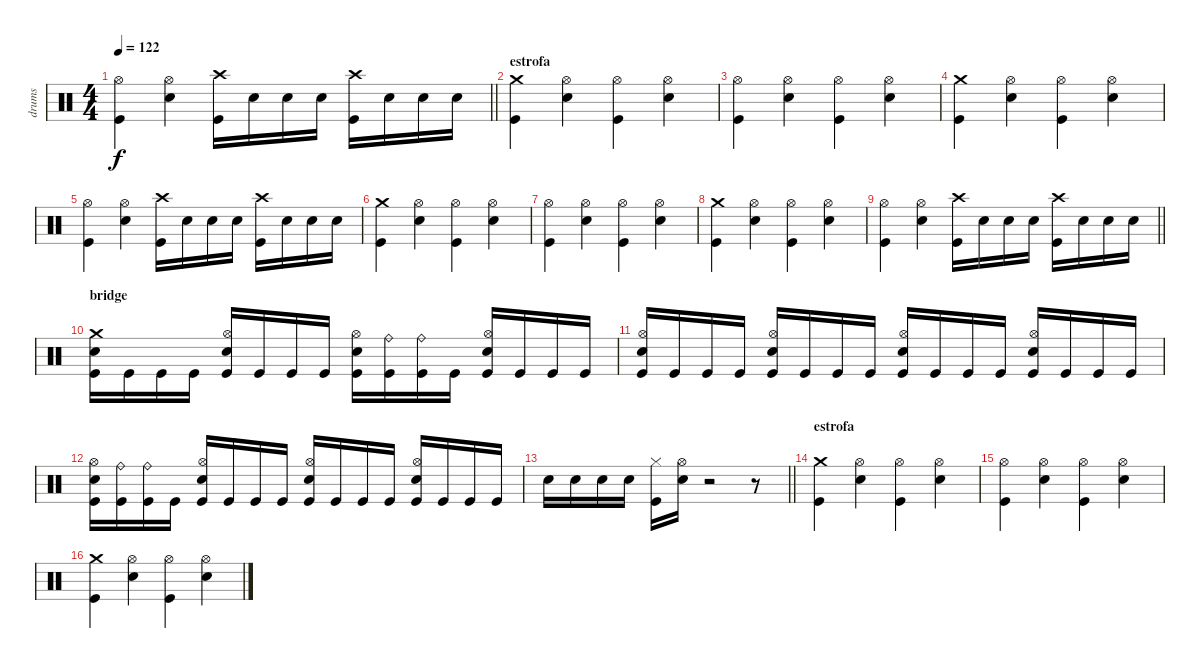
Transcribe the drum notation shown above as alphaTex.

\track ("drums" "drums") {instrument percussion}
\staff {score}
\articulation defaults
\ts (4 4)
\tempo 122
\clef neutral
\barLineRight lightlight
\ks c
("Kick (hit)" "Hi-Hat (open)").4{dy f} ("Snare (hit) 2" "Hi-Hat (open)").4 ("Kick (hit)" "Crash high (hit)").16 "Snare (hit) 2".16 "Snare (hit) 2".16 "Snare (hit) 2".16 ("Kick (hit)" "Crash high (hit)").16 "Snare (hit) 2".16 "Snare (hit) 2".16 "Snare (hit) 2".16 |
\section ("" "estrofa")
("Kick (hit)" "Crash medium (hit)").4 ("Snare (hit) 2" "Hi-Hat (open)").4 ("Kick (hit)" "Hi-Hat (open)").4 ("Snare (hit) 2" "Hi-Hat (open)").4 |
("Kick (hit)" "Hi-Hat (open)").4 ("Snare (hit) 2" "Hi-Hat (open)").4 ("Kick (hit)" "Hi-Hat (open)").4 ("Snare (hit) 2" "Hi-Hat (open)").4 |
("Kick (hit)" "Crash medium (hit)").4 ("Snare (hit) 2" "Hi-Hat (open)").4 ("Kick (hit)" "Hi-Hat (open)").4 ("Snare (hit) 2" "Hi-Hat (open)").4 |
("Kick (hit)" "Hi-Hat (open)").4 ("Snare (hit) 2" "Hi-Hat (open)").4 ("Kick (hit)" "Crash high (hit)").16 "Snare (hit) 2".16 "Snare (hit) 2".16 "Snare (hit) 2".16 ("Kick (hit)" "Crash high (hit)").16 "Snare (hit) 2".16 "Snare (hit) 2".16 "Snare (hit) 2".16 |
("Kick (hit)" "Crash medium (hit)").4 ("Snare (hit) 2" "Hi-Hat (open)").4 ("Kick (hit)" "Hi-Hat (open)").4 ("Snare (hit) 2" "Hi-Hat (open)").4 |
("Kick (hit)" "Hi-Hat (open)").4 ("Snare (hit) 2" "Hi-Hat (open)").4 ("Kick (hit)" "Hi-Hat (open)").4 ("Snare (hit) 2" "Hi-Hat (open)").4 |
("Kick (hit)" "Crash medium (hit)").4 ("Snare (hit) 2" "Hi-Hat (open)").4 ("Kick (hit)" "Hi-Hat (open)").4 ("Snare (hit) 2" "Hi-Hat (open)").4 |
\barLineRight lightlight
("Kick (hit)" "Hi-Hat (open)").4 ("Snare (hit) 2" "Hi-Hat (open)").4 ("Kick (hit)" "Crash high (hit)").16 "Snare (hit) 2".16 "Snare (hit) 2".16 "Snare (hit) 2".16 ("Kick (hit)" "Crash high (hit)").16 "Snare (hit) 2".16 "Snare (hit) 2".16 "Snare (hit) 2".16 |
\section ("" "bridge")
("Snare (hit) 2" "Kick (hit)" "Crash medium (hit)").16 "Kick (hit)".16 "Kick (hit)".16 "Kick (hit)".16 ("Snare (hit) 2" "Kick (hit)" "Hi-Hat (open)").16 "Kick (hit)".16 "Kick (hit)".16 "Kick (hit)".16 ("Snare (hit) 2" "Kick (hit)" "Hi-Hat (open)").16 ("Kick (hit)" "Ride (bell)").16 ("Kick (hit)" "Ride (bell)").16 "Kick (hit)".16 ("Snare (hit) 2" "Kick (hit)" "Hi-Hat (open)").16 "Kick (hit)".16 "Kick (hit)".16 "Kick (hit)".16 |
("Snare (hit) 2" "Kick (hit)" "Hi-Hat (open)").16 "Kick (hit)".16 "Kick (hit)".16 "Kick (hit)".16 ("Snare (hit) 2" "Kick (hit)" "Hi-Hat (open)").16 "Kick (hit)".16 "Kick (hit)".16 "Kick (hit)".16 ("Snare (hit) 2" "Kick (hit)" "Hi-Hat (open)").16 "Kick (hit)".16 "Kick (hit)".16 "Kick (hit)".16 ("Snare (hit) 2" "Kick (hit)" "Hi-Hat (open)").16 "Kick (hit)".16 "Kick (hit)".16 "Kick (hit)".16 |
("Snare (hit) 2" "Kick (hit)" "Hi-Hat (open)").16 ("Kick (hit)" "Ride (bell)").16 ("Kick (hit)" "Ride (bell)").16 "Kick (hit)".16 ("Snare (hit) 2" "Kick (hit)" "Hi-Hat (open)").16 "Kick (hit)".16 "Kick (hit)".16 "Kick (hit)".16 ("Snare (hit) 2" "Kick (hit)" "Hi-Hat (open)").16 "Kick (hit)".16 "Kick (hit)".16 "Kick (hit)".16 ("Snare (hit) 2" "Kick (hit)" "Hi-Hat (open)").16 "Kick (hit)".16 "Kick (hit)".16 "Kick (hit)".16 |
\barLineRight lightlight "Snare (hit) 2".16 "Snare (hit) 2".16 "Snare (hit) 2".16 "Snare (hit) 2".16
("Kick (hit)" "Hi-Hat (closed)").16 ("Snare (hit) 2" "Hi-Hat (open)").16 r.2 r.8 |
\section ("" "estrofa")
("Kick (hit)" "Crash medium (hit)").4 ("Snare (hit) 2" "Hi-Hat (open)").4 ("Kick (hit)" "Hi-Hat (open)").4 ("Snare (hit) 2" "Hi-Hat (open)").4 |
("Kick (hit)" "Hi-Hat (open)").4 ("Snare (hit) 2" "Hi-Hat (open)").4 ("Kick (hit)" "Hi-Hat (open)").4 ("Snare (hit) 2" "Hi-Hat (open)").4 |
("Kick (hit)" "Crash medium (hit)").4 ("Snare (hit) 2" "Hi-Hat (open)").4 ("Kick (hit)" "Hi-Hat (open)").4 ("Snare (hit) 2" "Hi-Hat (open)").4
